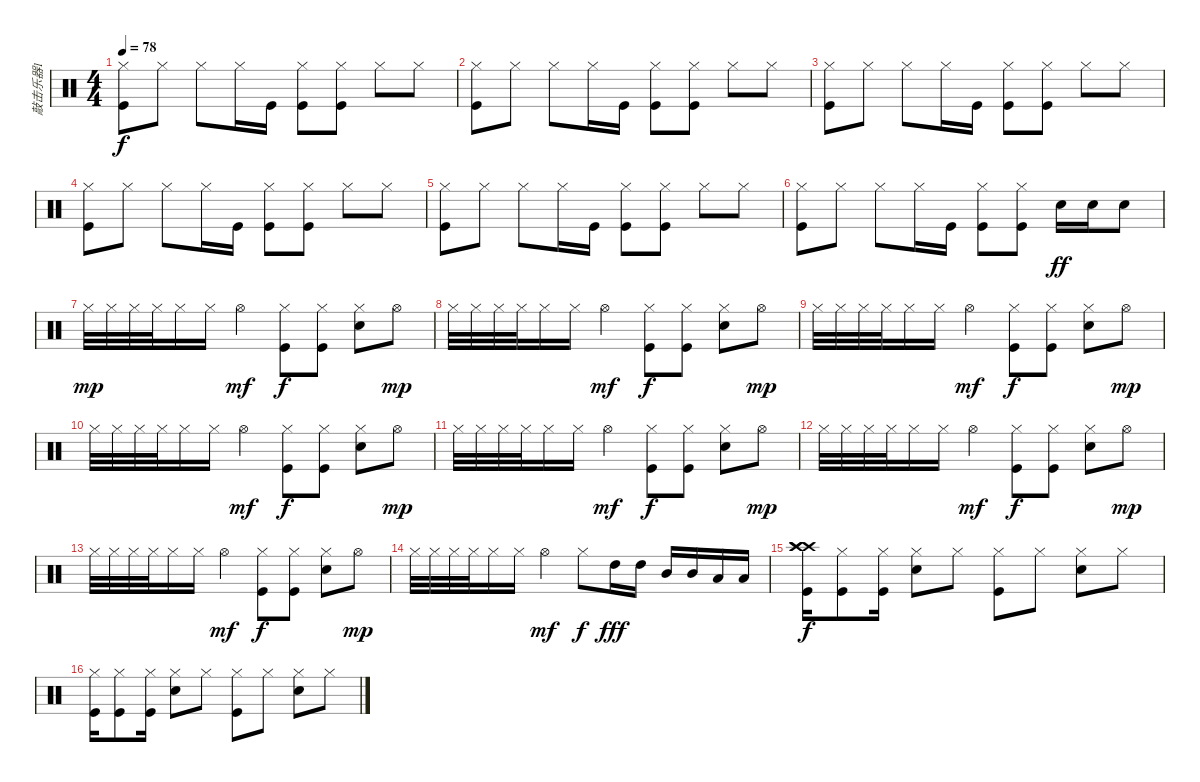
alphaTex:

\track ("敲击乐器1" "敲击乐器1") {instrument percussion}
\staff {score}
\articulation defaults
\ts (4 4)
\tempo 78
\clef neutral
\ks c
("Hi-Hat (closed)" "Kick (hit)").8{dy f} "Hi-Hat (closed)".8 "Hi-Hat (closed)".8 "Hi-Hat (closed)".16 "Kick (hit)".16 ("Hi-Hat (closed)" "Kick (hit)").8 ("Hi-Hat (closed)" "Kick (hit)").8 "Hi-Hat (closed)".8 "Hi-Hat (closed)".8 |
("Hi-Hat (closed)" "Kick (hit)").8 "Hi-Hat (closed)".8 "Hi-Hat (closed)".8 "Hi-Hat (closed)".16 "Kick (hit)".16 ("Hi-Hat (closed)" "Kick (hit)").8 ("Hi-Hat (closed)" "Kick (hit)").8 "Hi-Hat (closed)".8 "Hi-Hat (closed)".8 |
("Hi-Hat (closed)" "Kick (hit)").8 "Hi-Hat (closed)".8 "Hi-Hat (closed)".8 "Hi-Hat (closed)".16 "Kick (hit)".16 ("Hi-Hat (closed)" "Kick (hit)").8 ("Hi-Hat (closed)" "Kick (hit)").8 "Hi-Hat (closed)".8 "Hi-Hat (closed)".8 |
("Hi-Hat (closed)" "Kick (hit)").8 "Hi-Hat (closed)".8 "Hi-Hat (closed)".8 "Hi-Hat (closed)".16 "Kick (hit)".16 ("Hi-Hat (closed)" "Kick (hit)").8 ("Hi-Hat (closed)" "Kick (hit)").8 "Hi-Hat (closed)".8 "Hi-Hat (closed)".8 |
("Hi-Hat (closed)" "Kick (hit)").8 "Hi-Hat (closed)".8 "Hi-Hat (closed)".8 "Hi-Hat (closed)".16 "Kick (hit)".16 ("Hi-Hat (closed)" "Kick (hit)").8 ("Hi-Hat (closed)" "Kick (hit)").8 "Hi-Hat (closed)".8 "Hi-Hat (closed)".8 |
("Hi-Hat (closed)" "Kick (hit)").8 "Hi-Hat (closed)".8 "Hi-Hat (closed)".8 "Hi-Hat (closed)".16 "Kick (hit)".16 ("Hi-Hat (closed)" "Kick (hit)").8 ("Hi-Hat (closed)" "Kick (hit)").8 "Electric Snare (hit)".16{dy ff} "Electric Snare (hit)".16 "Snare (hit) 2".8 |
"Hi-Hat (closed)".32{dy mp} "Hi-Hat (closed)".32 "Hi-Hat (closed)".32 "Hi-Hat (closed)".32 "Hi-Hat (closed)".16 "Hi-Hat (closed)".16 "Hi-Hat (open)".4{dy mf} ("Hi-Hat (closed)" "Kick (hit)").8{dy f} ("Hi-Hat (closed)" "Kick (hit)").8 ("Hi-Hat (closed)" "Snare (hit) 2").8 "Hi-Hat (open)".8{dy mp} |
"Hi-Hat (closed)".32 "Hi-Hat (closed)".32 "Hi-Hat (closed)".32 "Hi-Hat (closed)".32 "Hi-Hat (closed)".16 "Hi-Hat (closed)".16 "Hi-Hat (open)".4{dy mf} ("Hi-Hat (closed)" "Kick (hit)").8{dy f} ("Hi-Hat (closed)" "Kick (hit)").8 ("Hi-Hat (closed)" "Snare (hit) 2").8 "Hi-Hat (open)".8{dy mp} |
"Hi-Hat (closed)".32 "Hi-Hat (closed)".32 "Hi-Hat (closed)".32 "Hi-Hat (closed)".32 "Hi-Hat (closed)".16 "Hi-Hat (closed)".16 "Hi-Hat (open)".4{dy mf} ("Hi-Hat (closed)" "Kick (hit)").8{dy f} ("Hi-Hat (closed)" "Kick (hit)").8 ("Hi-Hat (closed)" "Snare (hit) 2").8 "Hi-Hat (open)".8{dy mp} |
"Hi-Hat (closed)".32 "Hi-Hat (closed)".32 "Hi-Hat (closed)".32 "Hi-Hat (closed)".32 "Hi-Hat (closed)".16 "Hi-Hat (closed)".16 "Hi-Hat (open)".4{dy mf} ("Hi-Hat (closed)" "Kick (hit)").8{dy f} ("Hi-Hat (closed)" "Kick (hit)").8 ("Hi-Hat (closed)" "Snare (hit) 2").8 "Hi-Hat (open)".8{dy mp} |
"Hi-Hat (closed)".32 "Hi-Hat (closed)".32 "Hi-Hat (closed)".32 "Hi-Hat (closed)".32 "Hi-Hat (closed)".16 "Hi-Hat (closed)".16 "Hi-Hat (open)".4{dy mf} ("Hi-Hat (closed)" "Kick (hit)").8{dy f} ("Hi-Hat (closed)" "Kick (hit)").8 ("Hi-Hat (closed)" "Snare (hit) 2").8 "Hi-Hat (open)".8{dy mp} |
"Hi-Hat (closed)".32 "Hi-Hat (closed)".32 "Hi-Hat (closed)".32 "Hi-Hat (closed)".32 "Hi-Hat (closed)".16 "Hi-Hat (closed)".16 "Hi-Hat (open)".4{dy mf} ("Hi-Hat (closed)" "Kick (hit)").8{dy f} ("Hi-Hat (closed)" "Kick (hit)").8 ("Hi-Hat (closed)" "Snare (hit) 2").8 "Hi-Hat (open)".8{dy mp} |
"Hi-Hat (closed)".32 "Hi-Hat (closed)".32 "Hi-Hat (closed)".32 "Hi-Hat (closed)".32 "Hi-Hat (closed)".16 "Hi-Hat (closed)".16 "Hi-Hat (open)".4{dy mf} ("Hi-Hat (closed)" "Kick (hit)").8{dy f} ("Hi-Hat (closed)" "Kick (hit)").8 ("Hi-Hat (closed)" "Snare (hit) 2").8 "Hi-Hat (open)".8{dy mp} |
"Hi-Hat (closed)".32 "Hi-Hat (closed)".32 "Hi-Hat (closed)".32 "Hi-Hat (closed)".32 "Hi-Hat (closed)".16 "Hi-Hat (closed)".16 "Hi-Hat (open)".4{dy mf} "Hi-Hat (closed)".8{dy f} "High Tom (hit)".16{dy fff} "High Tom (hit)".16 "Mid Tom (hit)".16 "Mid Tom (hit)".16 "Low Tom (hit)".16 "Low Tom (hit)".16 |
("Crash high (hit)" "Kick (hit)" "Crash high (hit)" "Crash high (hit)").16{dy f} ("Hi-Hat (closed)" "Kick (hit)").8 ("Hi-Hat (closed)" "Kick (hit)").16 ("Hi-Hat (closed)" "Snare (hit) 2").8 "Hi-Hat (closed)".8 ("Hi-Hat (closed)" "Kick (hit)").8 "Hi-Hat (closed)".8 ("Hi-Hat (closed)" "Snare (hit) 2").8 "Hi-Hat (closed)".8 |
("Hi-Hat (closed)" "Kick (hit)").16 ("Hi-Hat (closed)" "Kick (hit)").8 ("Hi-Hat (closed)" "Kick (hit)").16 ("Hi-Hat (closed)" "Snare (hit) 2").8 "Hi-Hat (closed)".8 ("Hi-Hat (closed)" "Kick (hit)").8 "Hi-Hat (closed)".8 ("Hi-Hat (closed)" "Snare (hit) 2").8 "Hi-Hat (closed)".8
